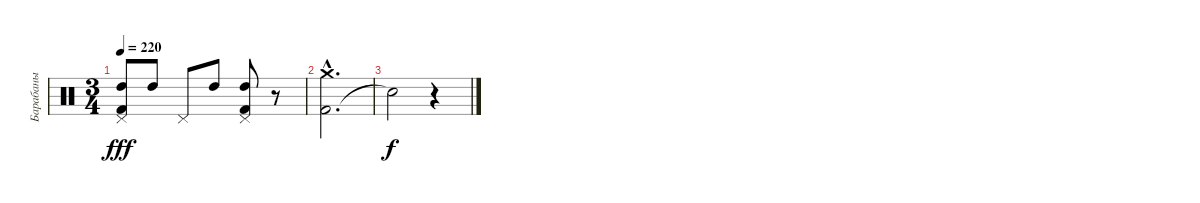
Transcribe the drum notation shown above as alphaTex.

\track ("Барабаны" "Барабаны") {instrument percussion}
\staff {score}
\articulation defaults
\ts (3 4)
\tempo 220
\clef neutral
\ks c
("Pedal Hi-Hat (hit)" "High Tom (hit)" "Kick (hit) 2").8{dy fff} "High Tom (hit)".8 "Pedal Hi-Hat (hit)".8 "High Tom (hit)".8 ("Pedal Hi-Hat (hit)" "High Tom (hit)" "Kick (hit) 2").8 r.8 |
("Kick (hit) 2" "Crash medium (hit)"{hac}).2{d} |
"Snare (hit)"{t}.2{dy f} r.4
